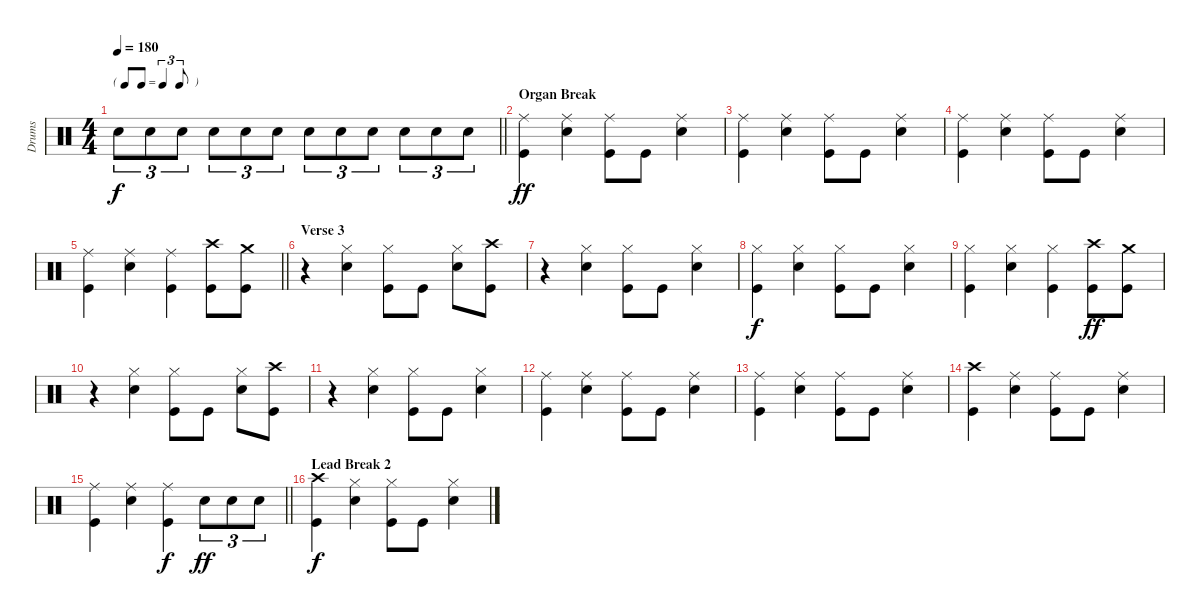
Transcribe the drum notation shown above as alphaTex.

\track ("Drums" "Drums") {instrument percussion}
\staff {score}
\articulation defaults
\ts (4 4)
\tf triplet8th
\tempo 180
\clef neutral
\barLineRight lightlight
\ks c "Snare (hit) 2".8{tu (3 2) dy f} "Snare (hit) 2".8{tu (3 2)} "Snare (hit) 2".8{tu (3 2)} "Snare (hit) 2".8{tu (3 2)} "Snare (hit) 2".8{tu (3 2)} "Snare (hit) 2".8{tu (3 2)} "Snare (hit) 2".8{tu (3 2)} "Snare (hit) 2".8{tu (3 2)} "Snare (hit) 2".8{tu (3 2)} "Snare (hit) 2".8{tu (3 2)} "Snare (hit) 2".8{tu (3 2)} "Snare (hit) 2".8{tu (3 2)}
|
\section ("" "Organ Break")
("Kick (hit)" "Ride (middle)").4{dy ff} ("Ride (middle)" "Snare (hit) 2").4 ("Kick (hit)" "Ride (middle)").8 "Kick (hit)".8 ("Ride (middle)" "Snare (hit) 2").4 |
("Kick (hit)" "Ride (middle)").4 ("Ride (middle)" "Snare (hit) 2").4 ("Kick (hit)" "Ride (middle)").8 "Kick (hit)".8 ("Ride (middle)" "Snare (hit) 2").4 |
("Kick (hit)" "Ride (middle)").4 ("Ride (middle)" "Snare (hit) 2").4 ("Kick (hit)" "Ride (middle)").8 "Kick (hit)".8 ("Ride (middle)" "Snare (hit) 2").4 |
\barLineRight lightlight
("Kick (hit)" "Ride (middle)").4 ("Ride (middle)" "Snare (hit) 2").4 ("Kick (hit)" "Ride (middle)").4 ("Kick (hit)" "Crash high (hit)").8 ("Crash medium (hit)" "Kick (hit)").8 |
\section ("" "Verse 3")
r.4 ("Snare (hit) 2" "Hi-Hat (closed)").4 ("Kick (hit)" "Hi-Hat (closed)").8 "Kick (hit)".8 ("Snare (hit) 2" "Hi-Hat (closed)").8 ("Crash high (hit)" "Kick (hit)").8 |
r.4 ("Snare (hit) 2" "Hi-Hat (closed)").4 ("Kick (hit)" "Hi-Hat (closed)").8 "Kick (hit)".8 ("Snare (hit) 2" "Hi-Hat (closed)").4 |
("Hi-Hat (closed)" "Kick (hit)").4{dy f} ("Snare (hit) 2" "Hi-Hat (closed)").4 ("Kick (hit)" "Hi-Hat (closed)").8 "Kick (hit)".8 ("Snare (hit) 2" "Hi-Hat (closed)").4 |
("Hi-Hat (closed)" "Kick (hit)").4 ("Snare (hit) 2" "Hi-Hat (closed)").4 ("Kick (hit)" "Hi-Hat (closed)").4 ("Kick (hit)" "Crash high (hit)").8{dy ff} ("Crash medium (hit)" "Kick (hit)").8 |
r.4 ("Snare (hit) 2" "Hi-Hat (closed)").4 ("Kick (hit)" "Hi-Hat (closed)").8 "Kick (hit)".8 ("Snare (hit) 2" "Hi-Hat (closed)").8 ("Crash high (hit)" "Kick (hit)").8 |
r.4 ("Snare (hit) 2" "Hi-Hat (closed)").4 ("Kick (hit)" "Hi-Hat (closed)").8 "Kick (hit)".8 ("Snare (hit) 2" "Hi-Hat (closed)").4 |
("Kick (hit)" "Ride (middle)").4 ("Ride (middle)" "Snare (hit) 2").4 ("Kick (hit)" "Ride (middle)").8 "Kick (hit)".8 ("Ride (middle)" "Snare (hit) 2").4 |
("Kick (hit)" "Ride (middle)").4 ("Ride (middle)" "Snare (hit) 2").4 ("Kick (hit)" "Ride (middle)").8 "Kick (hit)".8 ("Ride (middle)" "Snare (hit) 2").4 |
("Kick (hit)" "Crash high (hit)").4 ("Ride (middle)" "Snare (hit) 2").4 ("Kick (hit)" "Ride (middle)").8 "Kick (hit)".8 ("Ride (middle)" "Snare (hit) 2").4 |
\barLineRight lightlight
("Kick (hit)" "Ride (middle)").4 ("Ride (middle)" "Snare (hit) 2").4 ("Kick (hit)" "Ride (middle)").4{dy f} "Snare (hit) 2".8{tu (3 2) dy ff} "Snare (hit) 2".8{tu (3 2)} "Snare (hit) 2".8{tu (3 2)} |
\section ("" "Lead Break 2")
("Crash high (hit)" "Kick (hit)").4{dy f} ("Snare (hit) 2" "Hi-Hat (closed)").4 ("Kick (hit)" "Hi-Hat (closed)").8 "Kick (hit)".8 ("Snare (hit) 2" "Hi-Hat (closed)").4
